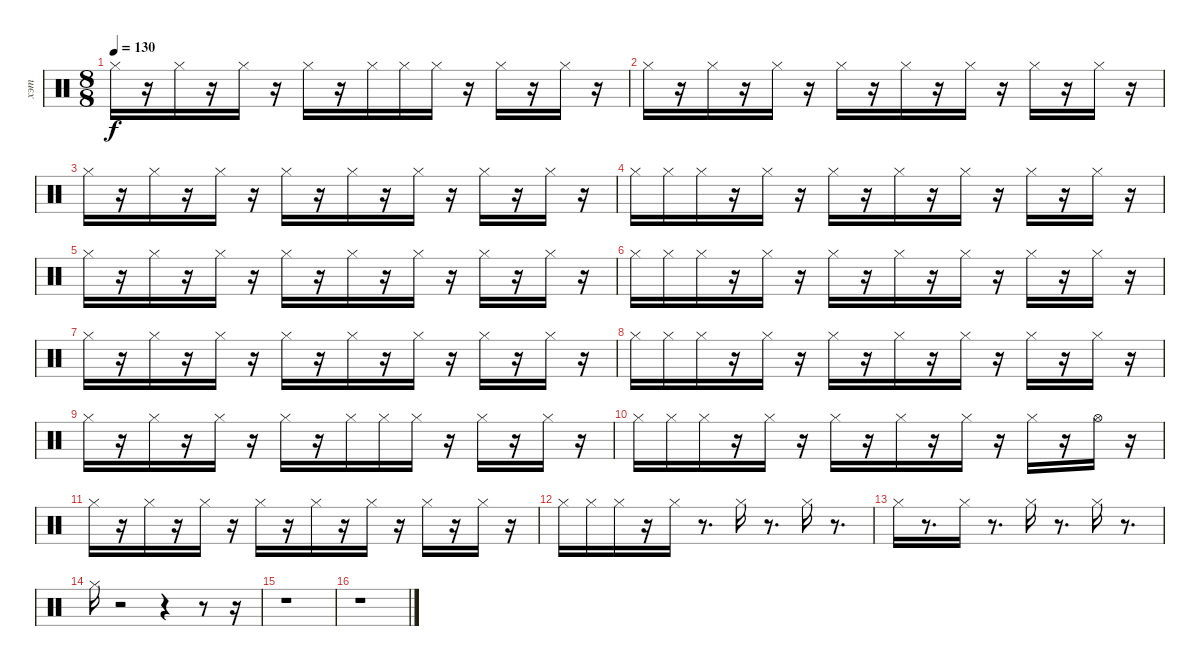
\track ("хэт" "хэт") {instrument percussion}
\staff {score}
\articulation defaults
\ts (8 8)
\tempo 130
\clef neutral
\ks c "Hi-Hat (closed)".16{dy f}
r.16 "Hi-Hat (closed)".16 r.16 "Hi-Hat (closed)".16 r.16 "Hi-Hat (closed)".16 r.16 "Hi-Hat (closed)".16 "Hi-Hat (closed)".16 "Hi-Hat (closed)".16 r.16 "Hi-Hat (closed)".16 r.16 "Hi-Hat (closed)".16 r.16 |
"Hi-Hat (closed)".16 r.16 "Hi-Hat (closed)".16 r.16 "Hi-Hat (closed)".16 r.16 "Hi-Hat (closed)".16 r.16 "Hi-Hat (closed)".16 r.16 "Hi-Hat (closed)".16 r.16 "Hi-Hat (closed)".16 r.16 "Hi-Hat (closed)".16 r.16 |
"Hi-Hat (closed)".16 r.16 "Hi-Hat (closed)".16 r.16 "Hi-Hat (closed)".16 r.16 "Hi-Hat (closed)".16 r.16 "Hi-Hat (closed)".16 r.16 "Hi-Hat (closed)".16 r.16 "Hi-Hat (closed)".16 r.16 "Hi-Hat (closed)".16 r.16 |
"Hi-Hat (closed)".16 "Hi-Hat (closed)".16 "Hi-Hat (closed)".16 r.16 "Hi-Hat (closed)".16 r.16 "Hi-Hat (closed)".16 r.16 "Hi-Hat (closed)".16 r.16 "Hi-Hat (closed)".16 r.16 "Hi-Hat (closed)".16 r.16 "Hi-Hat (closed)".16 r.16 |
"Hi-Hat (closed)".16 r.16 "Hi-Hat (closed)".16 r.16 "Hi-Hat (closed)".16 r.16 "Hi-Hat (closed)".16 r.16 "Hi-Hat (closed)".16 r.16 "Hi-Hat (closed)".16 r.16 "Hi-Hat (closed)".16 r.16 "Hi-Hat (closed)".16 r.16 |
"Hi-Hat (closed)".16 "Hi-Hat (closed)".16 "Hi-Hat (closed)".16 r.16 "Hi-Hat (closed)".16 r.16 "Hi-Hat (closed)".16 r.16 "Hi-Hat (closed)".16 r.16 "Hi-Hat (closed)".16 r.16 "Hi-Hat (closed)".16 r.16 "Hi-Hat (closed)".16 r.16 |
"Hi-Hat (closed)".16 r.16 "Hi-Hat (closed)".16 r.16 "Hi-Hat (closed)".16 r.16 "Hi-Hat (closed)".16 r.16 "Hi-Hat (closed)".16 r.16 "Hi-Hat (closed)".16 r.16 "Hi-Hat (closed)".16 r.16 "Hi-Hat (closed)".16 r.16 |
"Hi-Hat (closed)".16 "Hi-Hat (closed)".16 "Hi-Hat (closed)".16 r.16 "Hi-Hat (closed)".16 r.16 "Hi-Hat (closed)".16 r.16 "Hi-Hat (closed)".16 r.16 "Hi-Hat (closed)".16 r.16 "Hi-Hat (closed)".16 r.16 "Hi-Hat (closed)".16 r.16 |
"Hi-Hat (closed)".16 r.16 "Hi-Hat (closed)".16 r.16 "Hi-Hat (closed)".16 r.16 "Hi-Hat (closed)".16 r.16 "Hi-Hat (closed)".16 "Hi-Hat (closed)".16 "Hi-Hat (closed)".16 r.16 "Hi-Hat (closed)".16 r.16 "Hi-Hat (closed)".16 r.16 |
"Hi-Hat (closed)".16 "Hi-Hat (closed)".16 "Hi-Hat (closed)".16 r.16 "Hi-Hat (closed)".16 r.16 "Hi-Hat (closed)".16 r.16 "Hi-Hat (closed)".16 r.16 "Hi-Hat (closed)".16 r.16 "Hi-Hat (closed)".16 r.16 "Hi-Hat (open)".16 r.16 |
"Hi-Hat (closed)".16 r.16 "Hi-Hat (closed)".16 r.16 "Hi-Hat (closed)".16 r.16 "Hi-Hat (closed)".16 r.16 "Hi-Hat (closed)".16 r.16 "Hi-Hat (closed)".16 r.16 "Hi-Hat (closed)".16 r.16 "Hi-Hat (closed)".16 r.16 |
"Hi-Hat (closed)".16 "Hi-Hat (closed)".16 "Hi-Hat (closed)".16 r.16 "Hi-Hat (closed)".16 r.8{d} "Hi-Hat (closed)".16 r.8{d} "Hi-Hat (closed)".16 r.8{d} |
"Hi-Hat (closed)".16 r.8{d} "Hi-Hat (closed)".16 r.8{d} "Hi-Hat (closed)".16 r.8{d} "Hi-Hat (closed)".16 r.8{d} |
"Hi-Hat (closed)".16 r.2 r.4 r.8 r.16 |
r.1 |
r.1
